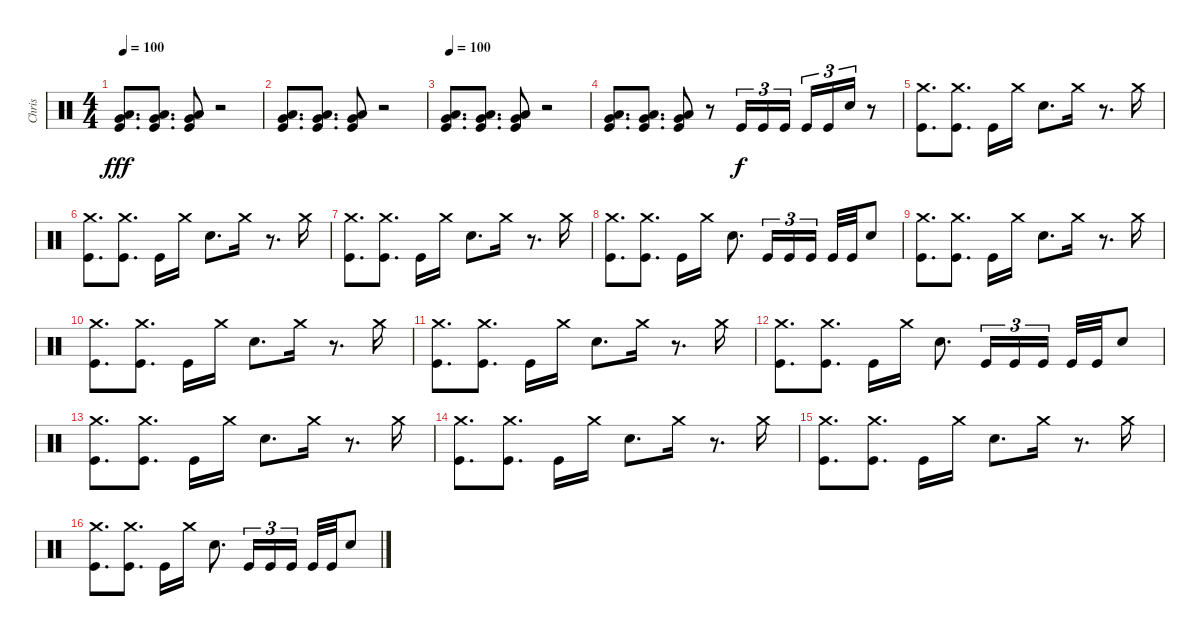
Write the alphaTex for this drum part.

\track ("Chris" "Chris") {instrument percussion}
\staff {score}
\articulation defaults
\ts (4 4)
\tempo 100
\clef neutral
\ks c
("Low Floor Tom (hit)" "Very Low Tom (hit)" "Kick (hit)").8{d dy fff} ("Low Floor Tom (hit)" "Very Low Tom (hit)" "Kick (hit)").8{d} ("Low Floor Tom (hit)" "Very Low Tom (hit)" "Kick (hit)").8 r.2 |
("Low Floor Tom (hit)" "Very Low Tom (hit)" "Kick (hit)").8{d} ("Low Floor Tom (hit)" "Very Low Tom (hit)" "Kick (hit)").8{d} ("Low Floor Tom (hit)" "Very Low Tom (hit)" "Kick (hit)").8 r.2 |
\tempo 100
("Low Floor Tom (hit)" "Very Low Tom (hit)" "Kick (hit)").8{d} ("Low Floor Tom (hit)" "Very Low Tom (hit)" "Kick (hit)").8{d} ("Low Floor Tom (hit)" "Very Low Tom (hit)" "Kick (hit)").8 r.2 |
("Low Floor Tom (hit)" "Very Low Tom (hit)" "Kick (hit)").8{d} ("Low Floor Tom (hit)" "Very Low Tom (hit)" "Kick (hit)").8{d} ("Low Floor Tom (hit)" "Very Low Tom (hit)" "Kick (hit)").8 r.8 "Kick (hit)".16{tu (3 2) dy f} "Kick (hit)".16{tu (3 2)} "Kick (hit)".16{tu (3 2)} "Kick (hit)".16{tu (3 2)} "Kick (hit)".16{tu (3 2)} "Snare (hit) 2".16{tu (3 2)} r.8 |
("Crash medium (hit)" "Kick (hit)").8{d} ("Crash medium (hit)" "Kick (hit)").8{d} "Kick (hit)".16 "Crash medium (hit)".16 "Snare (hit) 2".8{d} "Crash medium (hit)".16 r.8{d} "Crash medium (hit)".16 |
("Crash medium (hit)" "Kick (hit)").8{d} ("Crash medium (hit)" "Kick (hit)").8{d} "Kick (hit)".16 "Crash medium (hit)".16 "Snare (hit) 2".8{d} "Crash medium (hit)".16 r.8{d} "Crash medium (hit)".16 |
("Crash medium (hit)" "Kick (hit)").8{d} ("Crash medium (hit)" "Kick (hit)").8{d} "Kick (hit)".16 "Crash medium (hit)".16 "Snare (hit) 2".8{d} "Crash medium (hit)".16 r.8{d} "Crash medium (hit)".16 |
("Crash medium (hit)" "Kick (hit)").8{d} ("Crash medium (hit)" "Kick (hit)").8{d} "Kick (hit)".16 "Crash medium (hit)".16 "Snare (hit) 2".8{d} "Kick (hit)".16{tu (3 2)} "Kick (hit)".16{tu (3 2)} "Kick (hit)".16{tu (3 2) beam splitsecondary} "Kick (hit)".32 "Kick (hit)".32 "Snare (hit) 2".8 |
("Crash medium (hit)" "Kick (hit)").8{d} ("Crash medium (hit)" "Kick (hit)").8{d} "Kick (hit)".16 "Crash medium (hit)".16 "Snare (hit) 2".8{d} "Crash medium (hit)".16 r.8{d} "Crash medium (hit)".16 |
("Crash medium (hit)" "Kick (hit)").8{d} ("Crash medium (hit)" "Kick (hit)").8{d} "Kick (hit)".16 "Crash medium (hit)".16 "Snare (hit) 2".8{d} "Crash medium (hit)".16 r.8{d} "Crash medium (hit)".16 |
("Crash medium (hit)" "Kick (hit)").8{d} ("Crash medium (hit)" "Kick (hit)").8{d} "Kick (hit)".16 "Crash medium (hit)".16 "Snare (hit) 2".8{d} "Crash medium (hit)".16 r.8{d} "Crash medium (hit)".16 |
("Crash medium (hit)" "Kick (hit)").8{d} ("Crash medium (hit)" "Kick (hit)").8{d} "Kick (hit)".16 "Crash medium (hit)".16 "Snare (hit) 2".8{d} "Kick (hit)".16{tu (3 2)} "Kick (hit)".16{tu (3 2)} "Kick (hit)".16{tu (3 2) beam splitsecondary} "Kick (hit)".32 "Kick (hit)".32 "Snare (hit) 2".8 |
("Crash medium (hit)" "Kick (hit)").8{d} ("Crash medium (hit)" "Kick (hit)").8{d} "Kick (hit)".16 "Crash medium (hit)".16 "Snare (hit) 2".8{d} "Crash medium (hit)".16 r.8{d} "Crash medium (hit)".16 |
("Crash medium (hit)" "Kick (hit)").8{d} ("Crash medium (hit)" "Kick (hit)").8{d} "Kick (hit)".16 "Crash medium (hit)".16 "Snare (hit) 2".8{d} "Crash medium (hit)".16 r.8{d} "Crash medium (hit)".16 |
("Crash medium (hit)" "Kick (hit)").8{d} ("Crash medium (hit)" "Kick (hit)").8{d} "Kick (hit)".16 "Crash medium (hit)".16 "Snare (hit) 2".8{d} "Crash medium (hit)".16 r.8{d} "Crash medium (hit)".16 |
("Crash medium (hit)" "Kick (hit)").8{d} ("Crash medium (hit)" "Kick (hit)").8{d} "Kick (hit)".16 "Crash medium (hit)".16 "Snare (hit) 2".8{d} "Kick (hit)".16{tu (3 2)} "Kick (hit)".16{tu (3 2)} "Kick (hit)".16{tu (3 2) beam splitsecondary} "Kick (hit)".32 "Kick (hit)".32 "Snare (hit) 2".8
